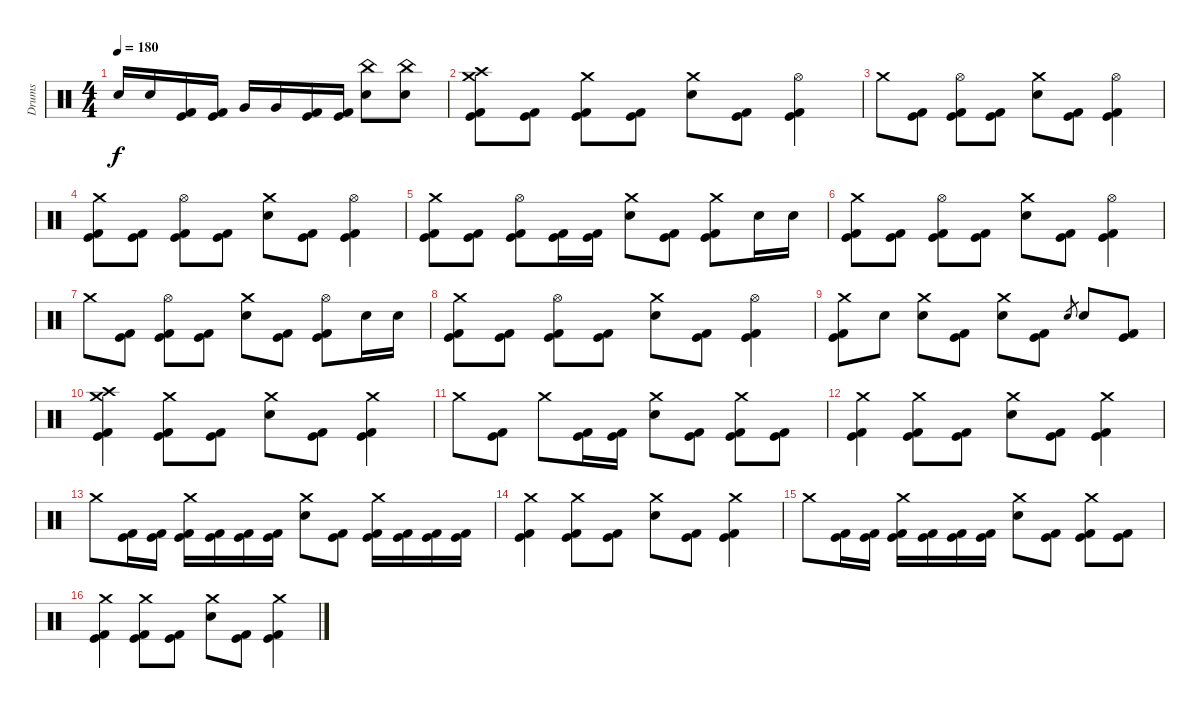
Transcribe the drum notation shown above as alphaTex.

\track ("Drums" "Drums") {instrument percussion}
\staff {score}
\articulation defaults
\ts (4 4)
\tempo 180
\clef neutral
\ks c "Electric Snare (hit)".16{dy f} "Electric Snare (hit)".16
("Kick (hit)" "Kick (hit) 2").16 ("Kick (hit)" "Kick (hit) 2").16 "Very Low Tom (hit)".16 "Very Low Tom (hit)".16 ("Kick (hit)" "Kick (hit) 2").16 ("Kick (hit)" "Kick (hit) 2").16 ("China (hit)" "Electric Snare (hit)").8 ("China (hit)" "Electric Snare (hit)").8 |
("Crash high (hit)" "Crash medium (hit)" "Kick (hit)" "Kick (hit) 2").8 ("Kick (hit)" "Kick (hit) 2").8 ("Crash medium (hit)" "Kick (hit)" "Kick (hit) 2").8 ("Kick (hit)" "Kick (hit) 2").8 ("Crash medium (hit)" "Electric Snare (hit)").8 ("Kick (hit)" "Kick (hit) 2").8 ("Hi-Hat (open)" "Kick (hit)" "Kick (hit) 2").4 |
"Crash medium (hit)".8 ("Kick (hit)" "Kick (hit) 2").8 ("Hi-Hat (open)" "Kick (hit)" "Kick (hit) 2").8 ("Kick (hit)" "Kick (hit) 2").8 ("Crash medium (hit)" "Electric Snare (hit)").8 ("Kick (hit)" "Kick (hit) 2").8 ("Hi-Hat (open)" "Kick (hit)" "Kick (hit) 2").4 |
("Crash medium (hit)" "Kick (hit)" "Kick (hit) 2").8 ("Kick (hit)" "Kick (hit) 2").8 ("Hi-Hat (open)" "Kick (hit)" "Kick (hit) 2").8 ("Kick (hit)" "Kick (hit) 2").8 ("Crash medium (hit)" "Electric Snare (hit)").8 ("Kick (hit)" "Kick (hit) 2").8 ("Hi-Hat (open)" "Kick (hit)" "Kick (hit) 2").4 |
("Crash medium (hit)" "Kick (hit)" "Kick (hit) 2").8 ("Kick (hit)" "Kick (hit) 2").8 ("Hi-Hat (open)" "Kick (hit)" "Kick (hit) 2").8 ("Kick (hit)" "Kick (hit) 2").16 ("Kick (hit)" "Kick (hit) 2").16 ("Crash medium (hit)" "Electric Snare (hit)").8 ("Kick (hit)" "Kick (hit) 2").8 ("Crash medium (hit)" "Kick (hit)" "Kick (hit) 2").8 "Electric Snare (hit)".16 "Electric Snare (hit)".16 |
("Crash medium (hit)" "Kick (hit)" "Kick (hit) 2").8 ("Kick (hit)" "Kick (hit) 2").8 ("Hi-Hat (open)" "Kick (hit)" "Kick (hit) 2").8 ("Kick (hit)" "Kick (hit) 2").8 ("Crash medium (hit)" "Electric Snare (hit)").8 ("Kick (hit)" "Kick (hit) 2").8 ("Hi-Hat (open)" "Kick (hit)" "Kick (hit) 2").4 |
"Crash medium (hit)".8 ("Kick (hit)" "Kick (hit) 2").8 ("Hi-Hat (open)" "Kick (hit)" "Kick (hit) 2").8 ("Kick (hit)" "Kick (hit) 2").8 ("Crash medium (hit)" "Electric Snare (hit)").8 ("Kick (hit)" "Kick (hit) 2").8 ("Hi-Hat (open)" "Kick (hit)" "Kick (hit) 2").8 "Electric Snare (hit)".16 "Electric Snare (hit)".16 |
("Crash medium (hit)" "Kick (hit)" "Kick (hit) 2").8 ("Kick (hit)" "Kick (hit) 2").8 ("Hi-Hat (open)" "Kick (hit)" "Kick (hit) 2").8 ("Kick (hit)" "Kick (hit) 2").8 ("Crash medium (hit)" "Electric Snare (hit)").8 ("Kick (hit)" "Kick (hit) 2").8 ("Hi-Hat (open)" "Kick (hit)" "Kick (hit) 2").4 |
("Crash medium (hit)" "Kick (hit)" "Kick (hit) 2").8 "Electric Snare (hit)".8 ("Crash medium (hit)" "Electric Snare (hit)").8 ("Kick (hit)" "Kick (hit) 2").8 ("Crash medium (hit)" "Electric Snare (hit)").8 ("Kick (hit)" "Kick (hit) 2").8 "Electric Snare (hit)".8{gr} "Electric Snare (hit)".8 ("Kick (hit)" "Kick (hit) 2").8 |
("Crash high (hit)" "Crash medium (hit)" "Kick (hit)" "Kick (hit) 2").4 ("Crash medium (hit)" "Kick (hit)" "Kick (hit) 2").8 ("Kick (hit)" "Kick (hit) 2").8 ("Crash medium (hit)" "Electric Snare (hit)").8 ("Kick (hit)" "Kick (hit) 2").8 ("Crash medium (hit)" "Kick (hit)" "Kick (hit) 2").4 |
"Crash medium (hit)".8 ("Kick (hit)" "Kick (hit) 2").8 "Crash medium (hit)".8 ("Kick (hit)" "Kick (hit) 2").16 ("Kick (hit)" "Kick (hit) 2").16 ("Crash medium (hit)" "Electric Snare (hit)").8 ("Kick (hit)" "Kick (hit) 2").8 ("Crash medium (hit)" "Kick (hit)" "Kick (hit) 2").8 ("Kick (hit)" "Kick (hit) 2").8 |
("Crash medium (hit)" "Kick (hit)" "Kick (hit) 2").4 ("Crash medium (hit)" "Kick (hit)" "Kick (hit) 2").8 ("Kick (hit)" "Kick (hit) 2").8 ("Crash medium (hit)" "Electric Snare (hit)").8 ("Kick (hit)" "Kick (hit) 2").8 ("Crash medium (hit)" "Kick (hit)" "Kick (hit) 2").4 |
"Crash medium (hit)".8 ("Kick (hit)" "Kick (hit) 2").16 ("Kick (hit)" "Kick (hit) 2").16 ("Crash medium (hit)" "Kick (hit)" "Kick (hit) 2").16 ("Kick (hit)" "Kick (hit) 2").16 ("Kick (hit)" "Kick (hit) 2").16 ("Kick (hit)" "Kick (hit) 2").16 ("Crash medium (hit)" "Electric Snare (hit)").8 ("Kick (hit)" "Kick (hit) 2").8 ("Crash medium (hit)" "Kick (hit)" "Kick (hit) 2").16 ("Kick (hit)" "Kick (hit) 2").16 ("Kick (hit)" "Kick (hit) 2").16 ("Kick (hit)" "Kick (hit) 2").16 |
("Crash medium (hit)" "Kick (hit)" "Kick (hit) 2").4 ("Crash medium (hit)" "Kick (hit)" "Kick (hit) 2").8 ("Kick (hit)" "Kick (hit) 2").8 ("Crash medium (hit)" "Electric Snare (hit)").8 ("Kick (hit)" "Kick (hit) 2").8 ("Crash medium (hit)" "Kick (hit)" "Kick (hit) 2").4 |
"Crash medium (hit)".8 ("Kick (hit)" "Kick (hit) 2").16 ("Kick (hit)" "Kick (hit) 2").16 ("Crash medium (hit)" "Kick (hit)" "Kick (hit) 2").16 ("Kick (hit)" "Kick (hit) 2").16 ("Kick (hit)" "Kick (hit) 2").16 ("Kick (hit)" "Kick (hit) 2").16 ("Crash medium (hit)" "Electric Snare (hit)").8 ("Kick (hit)" "Kick (hit) 2").8 ("Crash medium (hit)" "Kick (hit)" "Kick (hit) 2").8 ("Kick (hit)" "Kick (hit) 2").8 |
("Crash medium (hit)" "Kick (hit)" "Kick (hit) 2").4 ("Crash medium (hit)" "Kick (hit)" "Kick (hit) 2").8 ("Kick (hit)" "Kick (hit) 2").8 ("Crash medium (hit)" "Electric Snare (hit)").8 ("Kick (hit)" "Kick (hit) 2").8 ("Crash medium (hit)" "Kick (hit)" "Kick (hit) 2").4
